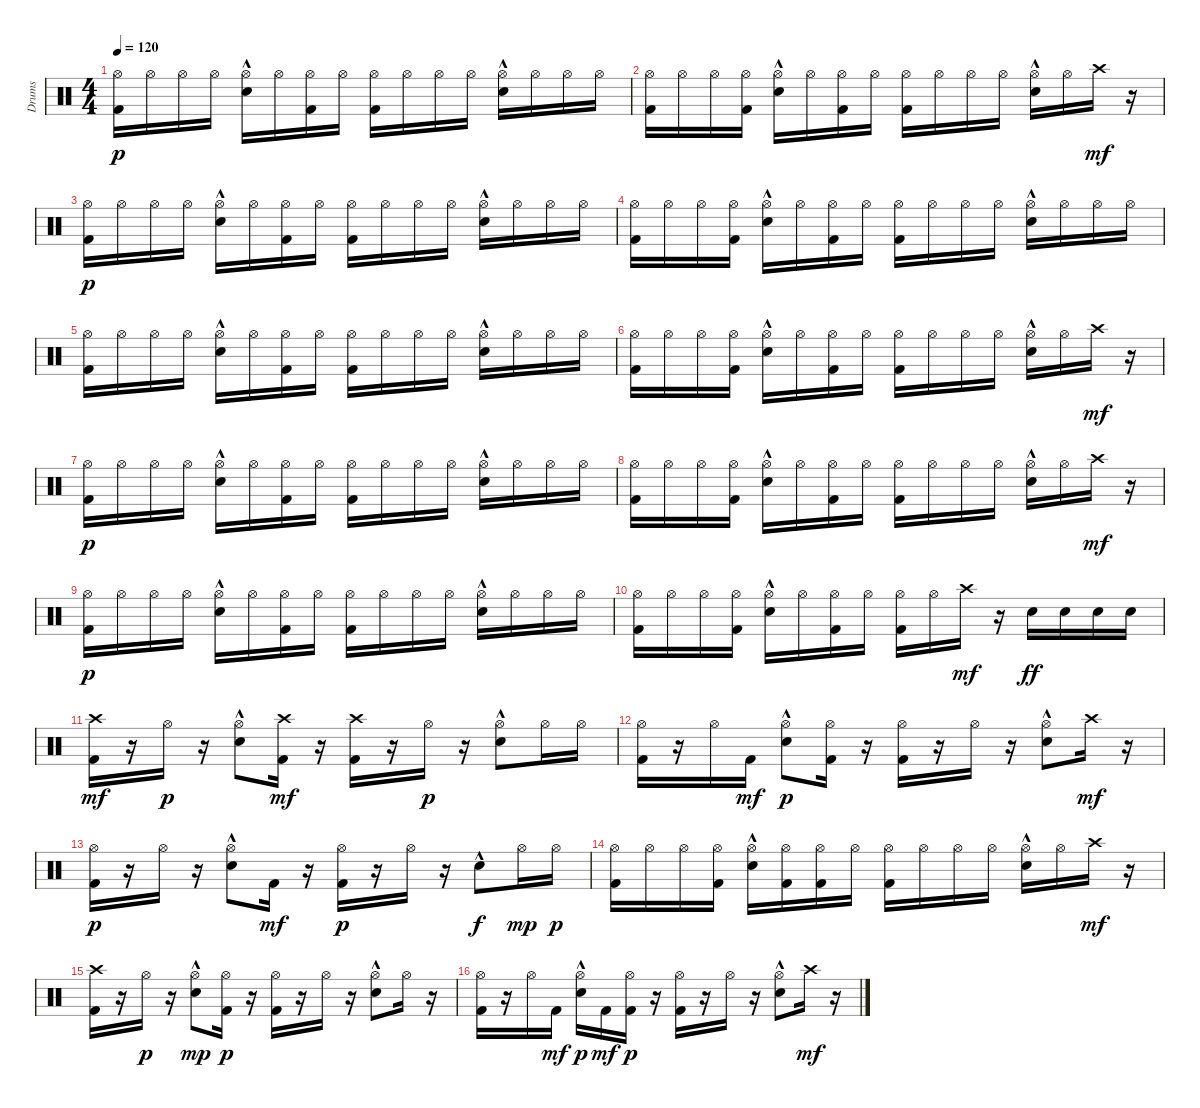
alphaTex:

\track ("Drums" "Drums") {instrument percussion}
\staff {score}
\articulation defaults
\ts (4 4)
\tempo 120
\clef neutral
\ks c
("Kick (hit) 2" "Hi-Hat (open)").16{dy p} "Hi-Hat (open)".16 "Hi-Hat (open)".16 "Hi-Hat (open)".16 ("Electric Snare (hit)"{hac} "Hi-Hat (open)").16 "Hi-Hat (open)".16 ("Kick (hit) 2" "Hi-Hat (open)").16 "Hi-Hat (open)".16 ("Kick (hit) 2" "Hi-Hat (open)").16 "Hi-Hat (open)".16 "Hi-Hat (open)".16 "Hi-Hat (open)".16 ("Electric Snare (hit)"{hac} "Hi-Hat (open)").16 "Hi-Hat (open)".16 "Hi-Hat (open)".16 "Hi-Hat (open)".16 |
("Kick (hit) 2" "Hi-Hat (open)").16 "Hi-Hat (open)".16 "Hi-Hat (open)".16 ("Kick (hit) 2" "Hi-Hat (open)").16 ("Electric Snare (hit)"{hac} "Hi-Hat (open)").16 "Hi-Hat (open)".16 ("Kick (hit) 2" "Hi-Hat (open)").16 "Hi-Hat (open)".16 ("Kick (hit) 2" "Hi-Hat (open)").16 "Hi-Hat (open)".16 "Hi-Hat (open)".16 "Hi-Hat (open)".16 ("Electric Snare (hit)"{hac} "Hi-Hat (open)").16 "Hi-Hat (open)".16 "Crash high (hit)".16{dy mf} r.16 |
("Kick (hit) 2" "Hi-Hat (open)").16{dy p} "Hi-Hat (open)".16 "Hi-Hat (open)".16 "Hi-Hat (open)".16 ("Electric Snare (hit)"{hac} "Hi-Hat (open)").16 "Hi-Hat (open)".16 ("Kick (hit) 2" "Hi-Hat (open)").16 "Hi-Hat (open)".16 ("Kick (hit) 2" "Hi-Hat (open)").16 "Hi-Hat (open)".16 "Hi-Hat (open)".16 "Hi-Hat (open)".16 ("Electric Snare (hit)"{hac} "Hi-Hat (open)").16 "Hi-Hat (open)".16 "Hi-Hat (open)".16 "Hi-Hat (open)".16 |
("Kick (hit) 2" "Hi-Hat (open)").16 "Hi-Hat (open)".16 "Hi-Hat (open)".16 ("Kick (hit) 2" "Hi-Hat (open)").16 ("Electric Snare (hit)"{hac} "Hi-Hat (open)").16 "Hi-Hat (open)".16 ("Kick (hit) 2" "Hi-Hat (open)").16 "Hi-Hat (open)".16 ("Kick (hit) 2" "Hi-Hat (open)").16 "Hi-Hat (open)".16 "Hi-Hat (open)".16 "Hi-Hat (open)".16 ("Electric Snare (hit)"{hac} "Hi-Hat (open)").16 "Hi-Hat (open)".16 "Hi-Hat (open)".16 "Hi-Hat (open)".16 |
("Kick (hit) 2" "Hi-Hat (open)").16 "Hi-Hat (open)".16 "Hi-Hat (open)".16 "Hi-Hat (open)".16 ("Electric Snare (hit)"{hac} "Hi-Hat (open)").16 "Hi-Hat (open)".16 ("Kick (hit) 2" "Hi-Hat (open)").16 "Hi-Hat (open)".16 ("Kick (hit) 2" "Hi-Hat (open)").16 "Hi-Hat (open)".16 "Hi-Hat (open)".16 "Hi-Hat (open)".16 ("Electric Snare (hit)"{hac} "Hi-Hat (open)").16 "Hi-Hat (open)".16 "Hi-Hat (open)".16 "Hi-Hat (open)".16 |
("Kick (hit) 2" "Hi-Hat (open)").16 "Hi-Hat (open)".16 "Hi-Hat (open)".16 ("Kick (hit) 2" "Hi-Hat (open)").16 ("Electric Snare (hit)"{hac} "Hi-Hat (open)").16 "Hi-Hat (open)".16 ("Kick (hit) 2" "Hi-Hat (open)").16 "Hi-Hat (open)".16 ("Kick (hit) 2" "Hi-Hat (open)").16 "Hi-Hat (open)".16 "Hi-Hat (open)".16 "Hi-Hat (open)".16 ("Electric Snare (hit)"{hac} "Hi-Hat (open)").16 "Hi-Hat (open)".16 "Crash high (hit)".16{dy mf} r.16 |
("Kick (hit) 2" "Hi-Hat (open)").16{dy p} "Hi-Hat (open)".16 "Hi-Hat (open)".16 "Hi-Hat (open)".16 ("Electric Snare (hit)"{hac} "Hi-Hat (open)").16 "Hi-Hat (open)".16 ("Kick (hit) 2" "Hi-Hat (open)").16 "Hi-Hat (open)".16 ("Kick (hit) 2" "Hi-Hat (open)").16 "Hi-Hat (open)".16 "Hi-Hat (open)".16 "Hi-Hat (open)".16 ("Electric Snare (hit)"{hac} "Hi-Hat (open)").16 "Hi-Hat (open)".16 "Hi-Hat (open)".16 "Hi-Hat (open)".16 |
("Kick (hit) 2" "Hi-Hat (open)").16 "Hi-Hat (open)".16 "Hi-Hat (open)".16 ("Kick (hit) 2" "Hi-Hat (open)").16 ("Electric Snare (hit)"{hac} "Hi-Hat (open)").16 "Hi-Hat (open)".16 ("Kick (hit) 2" "Hi-Hat (open)").16 "Hi-Hat (open)".16 ("Kick (hit) 2" "Hi-Hat (open)").16 "Hi-Hat (open)".16 "Hi-Hat (open)".16 "Hi-Hat (open)".16 ("Electric Snare (hit)"{hac} "Hi-Hat (open)").16 "Hi-Hat (open)".16 "Crash high (hit)".16{dy mf} r.16 |
("Kick (hit) 2" "Hi-Hat (open)").16{dy p} "Hi-Hat (open)".16 "Hi-Hat (open)".16 "Hi-Hat (open)".16 ("Electric Snare (hit)"{hac} "Hi-Hat (open)").16 "Hi-Hat (open)".16 ("Kick (hit) 2" "Hi-Hat (open)").16 "Hi-Hat (open)".16 ("Kick (hit) 2" "Hi-Hat (open)").16 "Hi-Hat (open)".16 "Hi-Hat (open)".16 "Hi-Hat (open)".16 ("Electric Snare (hit)"{hac} "Hi-Hat (open)").16 "Hi-Hat (open)".16 "Hi-Hat (open)".16 "Hi-Hat (open)".16 |
("Kick (hit) 2" "Hi-Hat (open)").16 "Hi-Hat (open)".16 "Hi-Hat (open)".16 ("Kick (hit) 2" "Hi-Hat (open)").16 ("Electric Snare (hit)"{hac} "Hi-Hat (open)").16 "Hi-Hat (open)".16 ("Kick (hit) 2" "Hi-Hat (open)").16 "Hi-Hat (open)".16 ("Kick (hit) 2" "Hi-Hat (open)").16 "Hi-Hat (open)".16 "Crash high (hit)".16{dy mf} r.16 "Electric Snare (hit)".16{dy ff} "Electric Snare (hit)".16 "Electric Snare (hit)".16 "Electric Snare (hit)".16 |
("Kick (hit) 2" "Crash high (hit)").16{dy mf} r.16 "Hi-Hat (open)".16{dy p} r.16 ("Electric Snare (hit)"{hac} "Hi-Hat (open)").8 ("Kick (hit) 2" "Crash high (hit)").16{dy mf} r.16 ("Kick (hit) 2" "Crash high (hit)").16 r.16 "Hi-Hat (open)".16{dy p} r.16 ("Electric Snare (hit)"{hac} "Hi-Hat (open)").8 "Hi-Hat (open)".16 "Hi-Hat (open)".16 |
("Kick (hit) 2" "Hi-Hat (open)").16 r.16 "Hi-Hat (open)".16 "Kick (hit) 2".16{dy mf} ("Electric Snare (hit)"{hac} "Hi-Hat (open)").8{dy p} ("Kick (hit) 2" "Hi-Hat (open)").16 r.16 ("Kick (hit) 2" "Hi-Hat (open)").16 r.16 "Hi-Hat (open)".16 r.16 ("Electric Snare (hit)"{hac} "Hi-Hat (open)").8 "Crash high (hit)".16{dy mf} r.16 |
("Kick (hit) 2" "Hi-Hat (open)").16{dy p} r.16 "Hi-Hat (open)".16 r.16 ("Electric Snare (hit)"{hac} "Hi-Hat (open)").8 "Kick (hit) 2".16{dy mf} r.16 ("Kick (hit) 2" "Hi-Hat (open)").16{dy p} r.16 "Hi-Hat (open)".16 r.16 "Electric Snare (hit)"{hac}.8{dy f} "Hi-Hat (open)".16{dy mp} "Hi-Hat (open)".16{dy p} |
("Kick (hit) 2" "Hi-Hat (open)").16 "Hi-Hat (open)".16 "Hi-Hat (open)".16 ("Kick (hit) 2" "Hi-Hat (open)").16 ("Electric Snare (hit)"{hac} "Hi-Hat (open)").16 ("Kick (hit) 2" "Hi-Hat (open)").16 ("Kick (hit) 2" "Hi-Hat (open)").16 "Hi-Hat (open)".16 ("Kick (hit) 2" "Hi-Hat (open)").16 "Hi-Hat (open)".16 "Hi-Hat (open)".16 "Hi-Hat (open)".16 ("Electric Snare (hit)"{hac} "Hi-Hat (open)").16 "Hi-Hat (open)".16 "Crash high (hit)".16{dy mf} r.16 |
("Kick (hit) 2" "Crash high (hit)").16 r.16 "Hi-Hat (open)".16{dy p} r.16 ("Electric Snare (hit)"{hac} "Hi-Hat (open)").8{dy mp} ("Kick (hit) 2" "Hi-Hat (open)").16{dy p} r.16 ("Kick (hit) 2" "Hi-Hat (open)").16 r.16 "Hi-Hat (open)".16 r.16 ("Electric Snare (hit)"{hac} "Hi-Hat (open)").8 "Hi-Hat (open)".16 r.16 |
("Kick (hit) 2" "Hi-Hat (open)").16 r.16 "Hi-Hat (open)".16 "Kick (hit) 2".16{dy mf} ("Electric Snare (hit)"{hac} "Hi-Hat (open)").16{dy p} "Kick (hit) 2".16{dy mf} ("Kick (hit) 2" "Hi-Hat (open)").16{dy p} r.16 ("Kick (hit) 2" "Hi-Hat (open)").16 r.16 "Hi-Hat (open)".16 r.16 ("Electric Snare (hit)"{hac} "Hi-Hat (open)").8 "Crash high (hit)".16{dy mf} r.16
